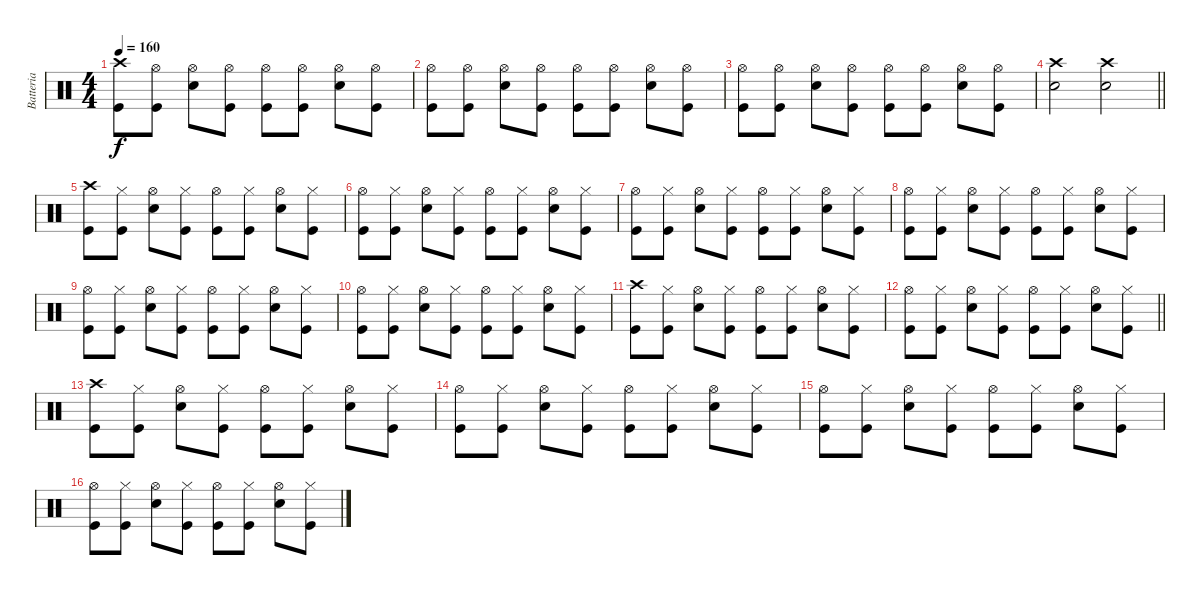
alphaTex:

\track ("Batteria" "Batteria") {instrument percussion}
\staff {score}
\articulation defaults
\ts (4 4)
\tempo 160
\clef neutral
\ks c
("Kick (hit)" "Crash high (hit)").8{dy f} ("Kick (hit)" "Hi-Hat (open)").8 ("Snare (hit) 2" "Hi-Hat (open)").8 ("Kick (hit)" "Hi-Hat (open)").8 ("Kick (hit)" "Hi-Hat (open)").8 ("Kick (hit)" "Hi-Hat (open)").8 ("Snare (hit) 2" "Hi-Hat (open)").8 ("Kick (hit)" "Hi-Hat (open)").8 |
("Kick (hit)" "Hi-Hat (open)").8 ("Kick (hit)" "Hi-Hat (open)").8 ("Snare (hit) 2" "Hi-Hat (open)").8 ("Kick (hit)" "Hi-Hat (open)").8 ("Kick (hit)" "Hi-Hat (open)").8 ("Kick (hit)" "Hi-Hat (open)").8 ("Snare (hit) 2" "Hi-Hat (open)").8 ("Kick (hit)" "Hi-Hat (open)").8 |
("Kick (hit)" "Hi-Hat (open)").8 ("Kick (hit)" "Hi-Hat (open)").8 ("Snare (hit) 2" "Hi-Hat (open)").8 ("Kick (hit)" "Hi-Hat (open)").8 ("Kick (hit)" "Hi-Hat (open)").8 ("Kick (hit)" "Hi-Hat (open)").8 ("Snare (hit) 2" "Hi-Hat (open)").8 ("Kick (hit)" "Hi-Hat (open)").8 |
\barLineRight lightlight
("Crash high (hit)" "Snare (hit) 2").2 ("Crash high (hit)" "Snare (hit) 2").2 |
("Kick (hit)" "Crash high (hit)").8 ("Kick (hit)" "Hi-Hat (closed)").8 ("Snare (hit) 2" "Hi-Hat (open)").8 ("Kick (hit)" "Hi-Hat (closed)").8 ("Kick (hit)" "Hi-Hat (open)").8 ("Kick (hit)" "Hi-Hat (closed)").8 ("Snare (hit) 2" "Hi-Hat (open)").8 ("Kick (hit)" "Hi-Hat (closed)").8 |
("Kick (hit)" "Hi-Hat (open)").8 ("Kick (hit)" "Hi-Hat (closed)").8 ("Snare (hit) 2" "Hi-Hat (open)").8 ("Kick (hit)" "Hi-Hat (closed)").8 ("Kick (hit)" "Hi-Hat (open)").8 ("Kick (hit)" "Hi-Hat (closed)").8 ("Snare (hit) 2" "Hi-Hat (open)").8 ("Kick (hit)" "Hi-Hat (closed)").8 |
("Kick (hit)" "Hi-Hat (open)").8 ("Kick (hit)" "Hi-Hat (closed)").8 ("Snare (hit) 2" "Hi-Hat (open)").8 ("Kick (hit)" "Hi-Hat (closed)").8 ("Kick (hit)" "Hi-Hat (open)").8 ("Kick (hit)" "Hi-Hat (closed)").8 ("Snare (hit) 2" "Hi-Hat (open)").8 ("Kick (hit)" "Hi-Hat (closed)").8 |
("Kick (hit)" "Hi-Hat (open)").8 ("Kick (hit)" "Hi-Hat (closed)").8 ("Snare (hit) 2" "Hi-Hat (open)").8 ("Kick (hit)" "Hi-Hat (closed)").8 ("Kick (hit)" "Hi-Hat (open)").8 ("Kick (hit)" "Hi-Hat (closed)").8 ("Snare (hit) 2" "Hi-Hat (open)").8 ("Kick (hit)" "Hi-Hat (closed)").8 |
("Kick (hit)" "Hi-Hat (open)").8 ("Kick (hit)" "Hi-Hat (closed)").8 ("Snare (hit) 2" "Hi-Hat (open)").8 ("Kick (hit)" "Hi-Hat (closed)").8 ("Kick (hit)" "Hi-Hat (open)").8 ("Kick (hit)" "Hi-Hat (closed)").8 ("Snare (hit) 2" "Hi-Hat (open)").8 ("Kick (hit)" "Hi-Hat (closed)").8 |
("Kick (hit)" "Hi-Hat (open)").8 ("Kick (hit)" "Hi-Hat (closed)").8 ("Snare (hit) 2" "Hi-Hat (open)").8 ("Kick (hit)" "Hi-Hat (closed)").8 ("Kick (hit)" "Hi-Hat (open)").8 ("Kick (hit)" "Hi-Hat (closed)").8 ("Snare (hit) 2" "Hi-Hat (open)").8 ("Kick (hit)" "Hi-Hat (closed)").8 |
("Kick (hit)" "Crash high (hit)").8 ("Kick (hit)" "Hi-Hat (closed)").8 ("Snare (hit) 2" "Hi-Hat (open)").8 ("Kick (hit)" "Hi-Hat (closed)").8 ("Kick (hit)" "Hi-Hat (open)").8 ("Kick (hit)" "Hi-Hat (closed)").8 ("Snare (hit) 2" "Hi-Hat (open)").8 ("Kick (hit)" "Hi-Hat (closed)").8 |
\barLineRight lightlight
("Kick (hit)" "Hi-Hat (open)").8 ("Kick (hit)" "Hi-Hat (closed)").8 ("Snare (hit) 2" "Hi-Hat (open)").8 ("Kick (hit)" "Hi-Hat (closed)").8 ("Kick (hit)" "Hi-Hat (open)").8 ("Kick (hit)" "Hi-Hat (closed)").8 ("Snare (hit) 2" "Hi-Hat (open)").8 ("Kick (hit)" "Hi-Hat (closed)").8 |
("Kick (hit)" "Crash high (hit)").8 ("Kick (hit)" "Hi-Hat (closed)").8 ("Snare (hit) 2" "Hi-Hat (open)").8 ("Kick (hit)" "Hi-Hat (closed)").8 ("Kick (hit)" "Hi-Hat (open)").8 ("Kick (hit)" "Hi-Hat (closed)").8 ("Snare (hit) 2" "Hi-Hat (open)").8 ("Kick (hit)" "Hi-Hat (closed)").8 |
("Kick (hit)" "Hi-Hat (open)").8 ("Kick (hit)" "Hi-Hat (closed)").8 ("Snare (hit) 2" "Hi-Hat (open)").8 ("Kick (hit)" "Hi-Hat (closed)").8 ("Kick (hit)" "Hi-Hat (open)").8 ("Kick (hit)" "Hi-Hat (closed)").8 ("Snare (hit) 2" "Hi-Hat (open)").8 ("Kick (hit)" "Hi-Hat (closed)").8 |
("Kick (hit)" "Hi-Hat (open)").8 ("Kick (hit)" "Hi-Hat (closed)").8 ("Snare (hit) 2" "Hi-Hat (open)").8 ("Kick (hit)" "Hi-Hat (closed)").8 ("Kick (hit)" "Hi-Hat (open)").8 ("Kick (hit)" "Hi-Hat (closed)").8 ("Snare (hit) 2" "Hi-Hat (open)").8 ("Kick (hit)" "Hi-Hat (closed)").8 |
("Kick (hit)" "Hi-Hat (open)").8 ("Kick (hit)" "Hi-Hat (closed)").8 ("Snare (hit) 2" "Hi-Hat (open)").8 ("Kick (hit)" "Hi-Hat (closed)").8 ("Kick (hit)" "Hi-Hat (open)").8 ("Kick (hit)" "Hi-Hat (closed)").8 ("Snare (hit) 2" "Hi-Hat (open)").8 ("Kick (hit)" "Hi-Hat (closed)").8
